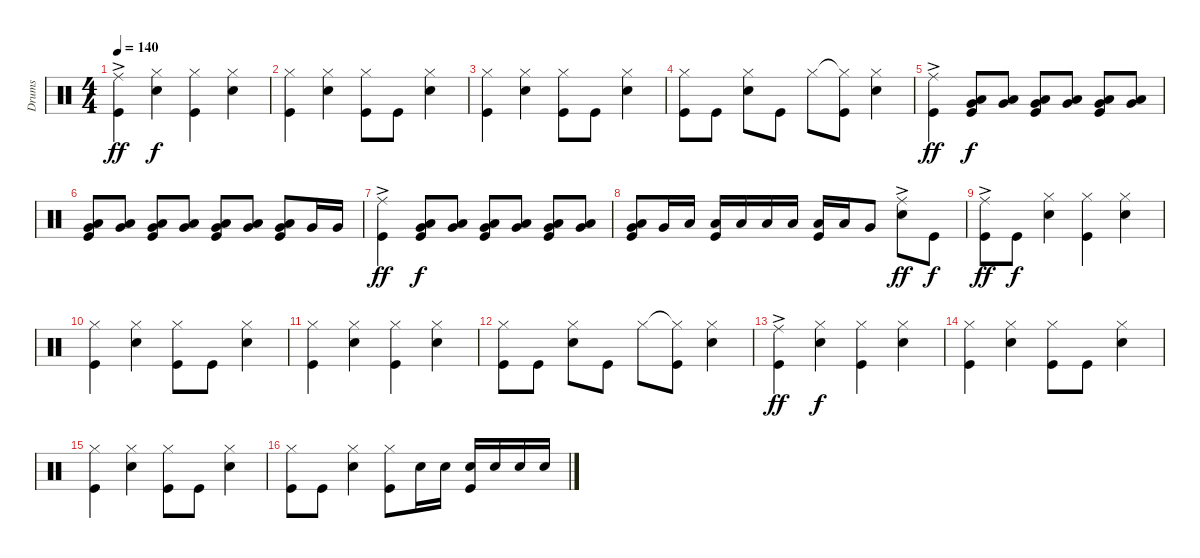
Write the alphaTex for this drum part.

\track ("Drums" "Drums") {instrument percussion}
\staff {score}
\articulation defaults
\ts (4 4)
\tempo 140
\clef neutral
\ks c
("Ride (middle)" "Kick (hit)"{ac}).4{dy ff} ("Snare (hit) 2" "Hi-Hat (closed)").4{dy f} ("Kick (hit)" "Hi-Hat (closed)").4 ("Snare (hit) 2" "Hi-Hat (closed)").4 |
("Hi-Hat (closed)" "Kick (hit)").4 ("Snare (hit) 2" "Hi-Hat (closed)").4 ("Kick (hit)" "Hi-Hat (closed)").8 "Kick (hit)".8 ("Snare (hit) 2" "Hi-Hat (closed)").4 |
("Hi-Hat (closed)" "Kick (hit)").4 ("Snare (hit) 2" "Hi-Hat (closed)").4 ("Kick (hit)" "Hi-Hat (closed)").8 "Kick (hit)".8 ("Snare (hit) 2" "Hi-Hat (closed)").4 |
("Hi-Hat (closed)" "Kick (hit)").8 "Kick (hit)".8 ("Hi-Hat (closed)" "Snare (hit) 2").8 "Kick (hit)".8 "Hi-Hat (closed)".8 ("Hi-Hat (closed)"{t} "Kick (hit)").8 ("Snare (hit) 2" "Hi-Hat (closed)").4 |
("Kick (hit)"{ac} "Ride (middle)").4{dy ff} ("Low Tom (hit)" "Very Low Tom (hit)" "Kick (hit)").8{dy f} ("Very Low Tom (hit)" "Low Tom (hit)").8 ("Low Tom (hit)" "Very Low Tom (hit)" "Kick (hit)").8 ("Very Low Tom (hit)" "Low Tom (hit)").8 ("Low Tom (hit)" "Very Low Tom (hit)" "Kick (hit)").8 ("Very Low Tom (hit)" "Low Tom (hit)").8 |
("Low Tom (hit)" "Very Low Tom (hit)" "Kick (hit)").8 ("Very Low Tom (hit)" "Low Tom (hit)").8 ("Low Tom (hit)" "Very Low Tom (hit)" "Kick (hit)").8 ("Very Low Tom (hit)" "Low Tom (hit)").8 ("Low Tom (hit)" "Very Low Tom (hit)" "Kick (hit)").8 ("Very Low Tom (hit)" "Low Tom (hit)").8 ("Low Tom (hit)" "Very Low Tom (hit)" "Kick (hit)").8 "Very Low Tom (hit)".16 "Very Low Tom (hit)".16 |
("Kick (hit)"{ac} "Ride (middle)").4{dy ff} ("Low Tom (hit)" "Very Low Tom (hit)" "Kick (hit)").8{dy f} ("Very Low Tom (hit)" "Low Tom (hit)").8 ("Low Tom (hit)" "Very Low Tom (hit)" "Kick (hit)").8 ("Very Low Tom (hit)" "Low Tom (hit)").8 ("Low Tom (hit)" "Very Low Tom (hit)" "Kick (hit)").8 ("Very Low Tom (hit)" "Low Tom (hit)").8 |
("Low Tom (hit)" "Very Low Tom (hit)" "Kick (hit)").8 "Very Low Tom (hit)".16 "Low Tom (hit)".16 ("Kick (hit)" "Low Tom (hit)").16 "Low Tom (hit)".16 "Low Tom (hit)".16 "Low Tom (hit)".16 ("Kick (hit)" "Low Tom (hit)").16 "Low Tom (hit)".16 "Very Low Tom (hit)".8 ("Ride (middle)"{ac} "Snare (hit) 2").8{dy ff} "Kick (hit)".8{dy f} |
("Kick (hit)"{ac} "Ride (middle)").8{dy ff} "Kick (hit)".8{dy f} ("Snare (hit) 2" "Hi-Hat (closed)").4 ("Kick (hit)" "Hi-Hat (closed)").4 ("Snare (hit) 2" "Hi-Hat (closed)").4 |
("Hi-Hat (closed)" "Kick (hit)").4 ("Snare (hit) 2" "Hi-Hat (closed)").4 ("Kick (hit)" "Hi-Hat (closed)").8 "Kick (hit)".8 ("Snare (hit) 2" "Hi-Hat (closed)").4 |
("Hi-Hat (closed)" "Kick (hit)").4 ("Snare (hit) 2" "Hi-Hat (closed)").4 ("Kick (hit)" "Hi-Hat (closed)").4 ("Snare (hit) 2" "Hi-Hat (closed)").4 |
("Hi-Hat (closed)" "Kick (hit)").8 "Kick (hit)".8 ("Hi-Hat (closed)" "Snare (hit) 2").8 "Kick (hit)".8 "Hi-Hat (closed)".8 ("Hi-Hat (closed)"{t} "Kick (hit)").8 ("Snare (hit) 2" "Hi-Hat (closed)").4 |
("Ride (middle)" "Kick (hit)"{ac}).4{dy ff} ("Snare (hit) 2" "Hi-Hat (closed)").4{dy f} ("Kick (hit)" "Hi-Hat (closed)").4 ("Snare (hit) 2" "Hi-Hat (closed)").4 |
("Hi-Hat (closed)" "Kick (hit)").4 ("Snare (hit) 2" "Hi-Hat (closed)").4 ("Kick (hit)" "Hi-Hat (closed)").8 "Kick (hit)".8 ("Snare (hit) 2" "Hi-Hat (closed)").4 |
("Hi-Hat (closed)" "Kick (hit)").4 ("Snare (hit) 2" "Hi-Hat (closed)").4 ("Kick (hit)" "Hi-Hat (closed)").8 "Kick (hit)".8 ("Snare (hit) 2" "Hi-Hat (closed)").4 |
("Hi-Hat (closed)" "Kick (hit)").8 "Kick (hit)".8 ("Snare (hit) 2" "Hi-Hat (closed)").4 ("Kick (hit)" "Hi-Hat (closed)").8 "Snare (hit) 2".16 "Snare (hit) 2".16 ("Kick (hit)" "Snare (hit) 2").16 "Snare (hit) 2".16 "Snare (hit) 2".16 "Snare (hit) 2".16
